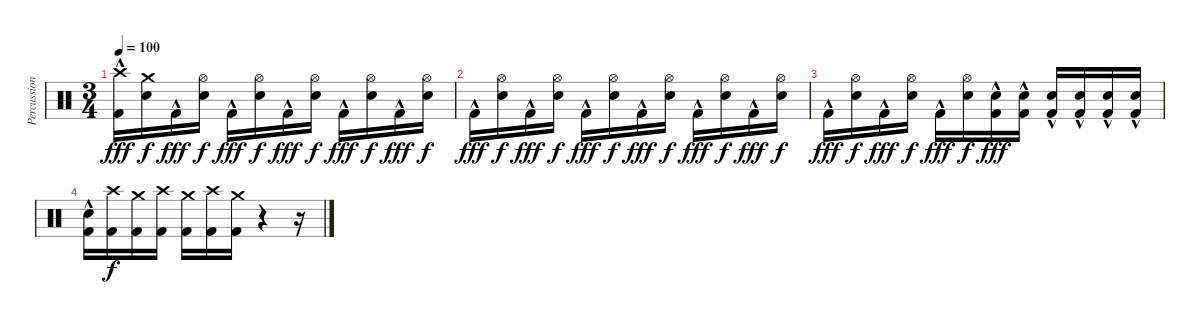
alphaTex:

\track ("Percussion" "Percussion") {instrument percussion}
\staff {score}
\articulation defaults
\ts (3 4)
\tempo 100
\clef neutral
\ks c
("Kick (hit) 2"{hac} "Crash high (hit)").16{dy fff} ("Electric Snare (hit)" "Crash medium (hit)").16{dy f} "Kick (hit) 2"{hac}.16{dy fff} ("Electric Snare (hit)" "Hi-Hat (open)").16{dy f} "Kick (hit) 2"{hac}.16{dy fff} ("Electric Snare (hit)" "Hi-Hat (open)").16{dy f} "Kick (hit) 2"{hac}.16{dy fff} ("Electric Snare (hit)" "Hi-Hat (open)").16{dy f} "Kick (hit) 2"{hac}.16{dy fff} ("Electric Snare (hit)" "Hi-Hat (open)").16{dy f} "Kick (hit) 2"{hac}.16{dy fff} ("Electric Snare (hit)" "Hi-Hat (open)").16{dy f} |
"Kick (hit) 2"{hac}.16{dy fff} ("Electric Snare (hit)" "Hi-Hat (open)").16{dy f} "Kick (hit) 2"{hac}.16{dy fff} ("Electric Snare (hit)" "Hi-Hat (open)").16{dy f} "Kick (hit) 2"{hac}.16{dy fff} ("Electric Snare (hit)" "Hi-Hat (open)").16{dy f} "Kick (hit) 2"{hac}.16{dy fff} ("Electric Snare (hit)" "Hi-Hat (open)").16{dy f} "Kick (hit) 2"{hac}.16{dy fff} ("Electric Snare (hit)" "Hi-Hat (open)").16{dy f} "Kick (hit) 2"{hac}.16{dy fff} ("Electric Snare (hit)" "Hi-Hat (open)").16{dy f} |
"Kick (hit) 2"{hac}.16{dy fff} ("Electric Snare (hit)" "Hi-Hat (open)").16{dy f} "Kick (hit) 2"{hac}.16{dy fff} ("Electric Snare (hit)" "Hi-Hat (open)").16{dy f} "Kick (hit) 2"{hac}.16{dy fff} ("Electric Snare (hit)" "Hi-Hat (open)").16{dy f} ("Kick (hit) 2"{hac} "Electric Snare (hit)").16{dy fff} ("Kick (hit) 2"{hac} "Electric Snare (hit)").16 ("Kick (hit) 2"{hac} "Electric Snare (hit)").16 ("Kick (hit) 2"{hac} "Electric Snare (hit)").16 ("Kick (hit) 2"{hac} "Electric Snare (hit)").16 ("Kick (hit) 2"{hac} "Electric Snare (hit)").16 |
("Kick (hit) 2"{hac} "Electric Snare (hit)"{hac}).16 ("Kick (hit) 2" "Crash high (hit)").16{dy f} ("Kick (hit) 2" "Crash medium (hit)").16 ("Kick (hit) 2" "Crash high (hit)").16 ("Kick (hit) 2" "Crash medium (hit)").16 ("Kick (hit) 2" "Crash high (hit)").16 ("Kick (hit) 2" "Crash medium (hit)").16{volume 0} r.4 r.16
